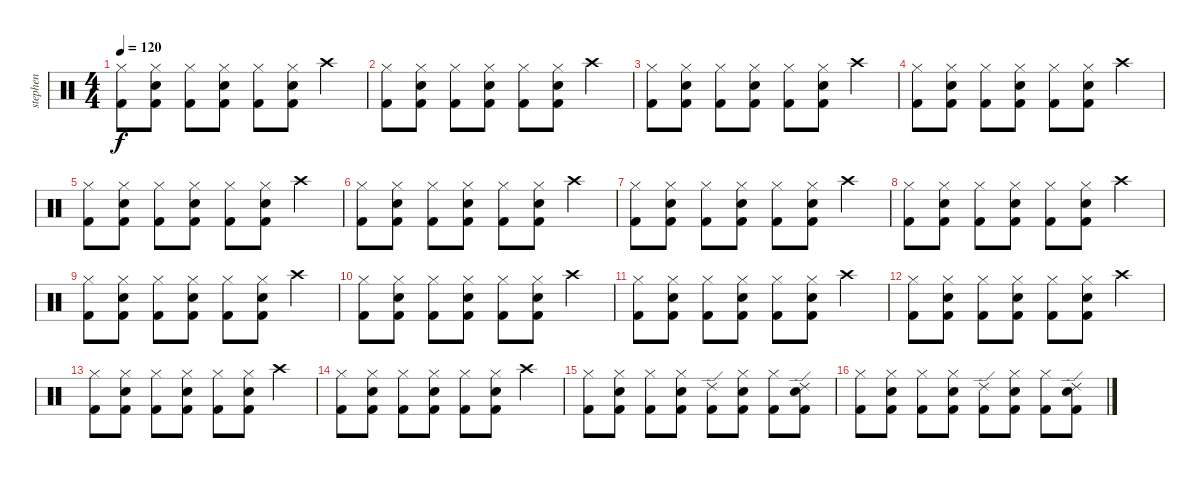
\track ("stephen" "stephen") {instrument percussion}
\staff {score}
\articulation defaults
\ts (4 4)
\tempo 120
\clef neutral
\ks c
("Hi-Hat (closed)" "Kick (hit) 2").8{dy f} ("Kick (hit) 2" "Hi-Hat (closed)" "Snare (hit) 2").8 ("Kick (hit) 2" "Hi-Hat (closed)").8 ("Kick (hit) 2" "Hi-Hat (closed)" "Snare (hit) 2").8 ("Kick (hit) 2" "Hi-Hat (closed)").8 ("Kick (hit) 2" "Hi-Hat (closed)" "Snare (hit) 2").8 "Crash high (hit)".4 |
("Hi-Hat (closed)" "Kick (hit) 2").8 ("Kick (hit) 2" "Hi-Hat (closed)" "Snare (hit) 2").8 ("Kick (hit) 2" "Hi-Hat (closed)").8 ("Kick (hit) 2" "Hi-Hat (closed)" "Snare (hit) 2").8 ("Kick (hit) 2" "Hi-Hat (closed)").8 ("Kick (hit) 2" "Hi-Hat (closed)" "Snare (hit) 2").8 "Crash high (hit)".4 |
("Hi-Hat (closed)" "Kick (hit) 2").8 ("Kick (hit) 2" "Hi-Hat (closed)" "Snare (hit) 2").8 ("Kick (hit) 2" "Hi-Hat (closed)").8 ("Kick (hit) 2" "Hi-Hat (closed)" "Snare (hit) 2").8 ("Kick (hit) 2" "Hi-Hat (closed)").8 ("Kick (hit) 2" "Hi-Hat (closed)" "Snare (hit) 2").8 "Crash high (hit)".4 |
("Hi-Hat (closed)" "Kick (hit) 2").8 ("Kick (hit) 2" "Hi-Hat (closed)" "Snare (hit) 2").8 ("Kick (hit) 2" "Hi-Hat (closed)").8 ("Kick (hit) 2" "Hi-Hat (closed)" "Snare (hit) 2").8 ("Kick (hit) 2" "Hi-Hat (closed)").8 ("Kick (hit) 2" "Hi-Hat (closed)" "Snare (hit) 2").8 "Crash high (hit)".4 |
("Hi-Hat (closed)" "Kick (hit) 2").8 ("Kick (hit) 2" "Hi-Hat (closed)" "Snare (hit) 2").8 ("Kick (hit) 2" "Hi-Hat (closed)").8 ("Kick (hit) 2" "Hi-Hat (closed)" "Snare (hit) 2").8 ("Kick (hit) 2" "Hi-Hat (closed)").8 ("Kick (hit) 2" "Hi-Hat (closed)" "Snare (hit) 2").8 "Crash high (hit)".4 |
("Hi-Hat (closed)" "Kick (hit) 2").8 ("Kick (hit) 2" "Hi-Hat (closed)" "Snare (hit) 2").8 ("Kick (hit) 2" "Hi-Hat (closed)").8 ("Kick (hit) 2" "Hi-Hat (closed)" "Snare (hit) 2").8 ("Kick (hit) 2" "Hi-Hat (closed)").8 ("Kick (hit) 2" "Hi-Hat (closed)" "Snare (hit) 2").8 "Crash high (hit)".4 |
("Hi-Hat (closed)" "Kick (hit) 2").8 ("Kick (hit) 2" "Hi-Hat (closed)" "Snare (hit) 2").8 ("Kick (hit) 2" "Hi-Hat (closed)").8 ("Kick (hit) 2" "Hi-Hat (closed)" "Snare (hit) 2").8 ("Kick (hit) 2" "Hi-Hat (closed)").8 ("Kick (hit) 2" "Hi-Hat (closed)" "Snare (hit) 2").8 "Crash high (hit)".4 |
("Hi-Hat (closed)" "Kick (hit) 2").8 ("Kick (hit) 2" "Hi-Hat (closed)" "Snare (hit) 2").8 ("Kick (hit) 2" "Hi-Hat (closed)").8 ("Kick (hit) 2" "Hi-Hat (closed)" "Snare (hit) 2").8 ("Kick (hit) 2" "Hi-Hat (closed)").8 ("Kick (hit) 2" "Hi-Hat (closed)" "Snare (hit) 2").8 "Crash high (hit)".4 |
("Hi-Hat (closed)" "Kick (hit) 2").8 ("Kick (hit) 2" "Hi-Hat (closed)" "Snare (hit) 2").8 ("Kick (hit) 2" "Hi-Hat (closed)").8 ("Kick (hit) 2" "Hi-Hat (closed)" "Snare (hit) 2").8 ("Kick (hit) 2" "Hi-Hat (closed)").8 ("Kick (hit) 2" "Hi-Hat (closed)" "Snare (hit) 2").8 "Crash high (hit)".4 |
("Hi-Hat (closed)" "Kick (hit) 2").8 ("Kick (hit) 2" "Hi-Hat (closed)" "Snare (hit) 2").8 ("Kick (hit) 2" "Hi-Hat (closed)").8 ("Kick (hit) 2" "Hi-Hat (closed)" "Snare (hit) 2").8 ("Kick (hit) 2" "Hi-Hat (closed)").8 ("Kick (hit) 2" "Hi-Hat (closed)" "Snare (hit) 2").8 "Crash high (hit)".4 |
("Hi-Hat (closed)" "Kick (hit) 2").8 ("Kick (hit) 2" "Hi-Hat (closed)" "Snare (hit) 2").8 ("Kick (hit) 2" "Hi-Hat (closed)").8 ("Kick (hit) 2" "Hi-Hat (closed)" "Snare (hit) 2").8 ("Kick (hit) 2" "Hi-Hat (closed)").8 ("Kick (hit) 2" "Hi-Hat (closed)" "Snare (hit) 2").8 "Crash high (hit)".4 |
("Hi-Hat (closed)" "Kick (hit) 2").8 ("Kick (hit) 2" "Hi-Hat (closed)" "Snare (hit) 2").8 ("Kick (hit) 2" "Hi-Hat (closed)").8 ("Kick (hit) 2" "Hi-Hat (closed)" "Snare (hit) 2").8 ("Kick (hit) 2" "Hi-Hat (closed)").8 ("Kick (hit) 2" "Hi-Hat (closed)" "Snare (hit) 2").8 "Crash high (hit)".4 |
("Hi-Hat (closed)" "Kick (hit) 2").8 ("Kick (hit) 2" "Hi-Hat (closed)" "Snare (hit) 2").8 ("Kick (hit) 2" "Hi-Hat (closed)").8 ("Kick (hit) 2" "Hi-Hat (closed)" "Snare (hit) 2").8 ("Kick (hit) 2" "Hi-Hat (closed)").8 ("Kick (hit) 2" "Hi-Hat (closed)" "Snare (hit) 2").8 "Crash high (hit)".4 |
("Hi-Hat (closed)" "Kick (hit) 2").8 ("Kick (hit) 2" "Hi-Hat (closed)" "Snare (hit) 2").8 ("Kick (hit) 2" "Hi-Hat (closed)").8 ("Kick (hit) 2" "Hi-Hat (closed)" "Snare (hit) 2").8 ("Kick (hit) 2" "Hi-Hat (closed)").8 ("Kick (hit) 2" "Hi-Hat (closed)" "Snare (hit) 2").8 "Crash high (hit)".4 |
("Kick (hit) 2" "Hi-Hat (closed)").8 ("Kick (hit) 2" "Snare (hit) 2" "Hi-Hat (closed)").8 ("Kick (hit) 2" "Hi-Hat (closed)").8 ("Snare (hit) 2" "Kick (hit) 2" "Hi-Hat (closed)").8 ("Kick (hit) 2" "Ride (edge) 2").8 ("Snare (hit) 2" "Kick (hit) 2" "Hi-Hat (closed)").8 ("Kick (hit) 2" "Hi-Hat (closed)").8 ("Snare (hit) 2" "Kick (hit) 2" "Ride (edge) 2").8 |
("Kick (hit) 2" "Hi-Hat (closed)").8 ("Kick (hit) 2" "Snare (hit) 2" "Hi-Hat (closed)").8 ("Kick (hit) 2" "Hi-Hat (closed)").8 ("Snare (hit) 2" "Kick (hit) 2" "Hi-Hat (closed)").8 ("Kick (hit) 2" "Ride (edge) 2").8 ("Snare (hit) 2" "Kick (hit) 2" "Hi-Hat (closed)").8 ("Kick (hit) 2" "Hi-Hat (closed)").8 ("Snare (hit) 2" "Kick (hit) 2" "Ride (edge) 2").8
